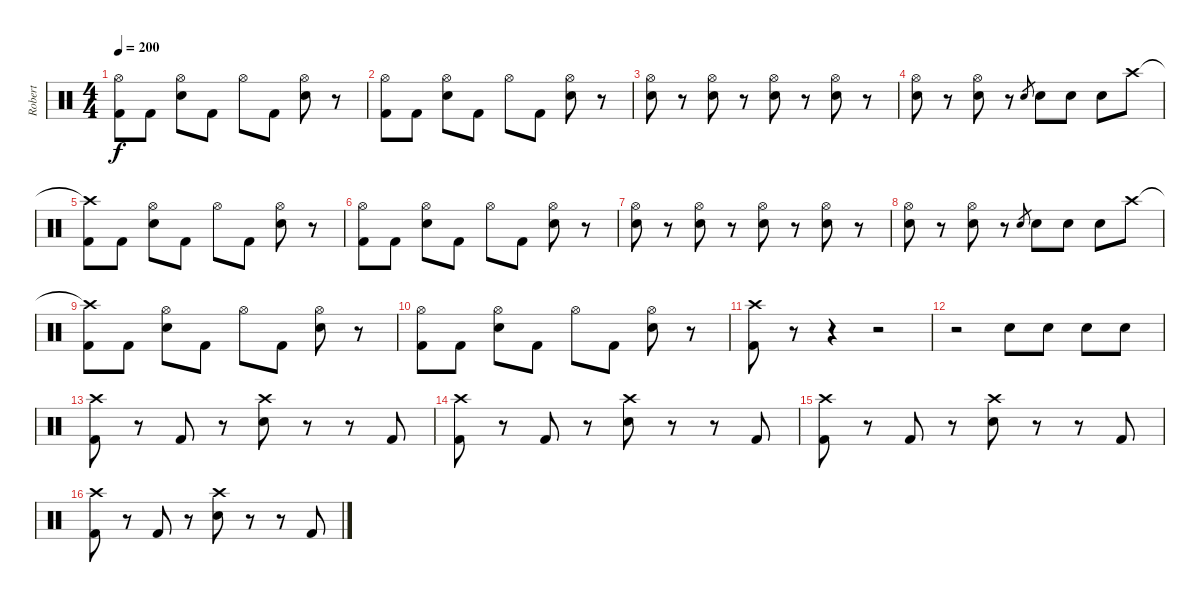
\track ("Robert" "Robert") {instrument percussion}
\staff {score}
\articulation defaults
\ts (4 4)
\tempo 200
\clef neutral
\ks c
("Hi-Hat (open)" "Kick (hit) 2").8{dy f} "Kick (hit) 2".8 ("Hi-Hat (open)" "Electric Snare (hit)").8 "Kick (hit) 2".8 "Hi-Hat (open)".8 "Kick (hit) 2".8 ("Hi-Hat (open)" "Electric Snare (hit)").8 r.8 |
("Hi-Hat (open)" "Kick (hit) 2").8 "Kick (hit) 2".8 ("Hi-Hat (open)" "Electric Snare (hit)").8 "Kick (hit) 2".8 "Hi-Hat (open)".8 "Kick (hit) 2".8 ("Hi-Hat (open)" "Electric Snare (hit)").8 r.8 |
("Hi-Hat (open)" "Electric Snare (hit)").8 r.8 ("Hi-Hat (open)" "Electric Snare (hit)").8 r.8 ("Hi-Hat (open)" "Electric Snare (hit)").8 r.8 ("Hi-Hat (open)" "Electric Snare (hit)").8 r.8 |
("Hi-Hat (open)" "Electric Snare (hit)").8 r.8 ("Hi-Hat (open)" "Electric Snare (hit)").8 r.8 "Electric Snare (hit)".8{gr} "Electric Snare (hit)".8 "Electric Snare (hit)".8 "Electric Snare (hit)".8 "Crash high (hit)".8 |
("Crash high (hit)"{t} "Kick (hit) 2").8 "Kick (hit) 2".8 ("Hi-Hat (open)" "Electric Snare (hit)").8 "Kick (hit) 2".8 "Hi-Hat (open)".8 "Kick (hit) 2".8 ("Hi-Hat (open)" "Electric Snare (hit)").8 r.8 |
("Hi-Hat (open)" "Kick (hit) 2").8 "Kick (hit) 2".8 ("Hi-Hat (open)" "Electric Snare (hit)").8 "Kick (hit) 2".8 "Hi-Hat (open)".8 "Kick (hit) 2".8 ("Hi-Hat (open)" "Electric Snare (hit)").8 r.8 |
("Hi-Hat (open)" "Electric Snare (hit)").8 r.8 ("Hi-Hat (open)" "Electric Snare (hit)").8 r.8 ("Hi-Hat (open)" "Electric Snare (hit)").8 r.8 ("Hi-Hat (open)" "Electric Snare (hit)").8 r.8 |
("Hi-Hat (open)" "Electric Snare (hit)").8 r.8 ("Hi-Hat (open)" "Electric Snare (hit)").8 r.8 "Electric Snare (hit)".8{gr} "Electric Snare (hit)".8 "Electric Snare (hit)".8 "Electric Snare (hit)".8 "Crash high (hit)".8 |
("Crash high (hit)"{t} "Kick (hit) 2").8 "Kick (hit) 2".8 ("Hi-Hat (open)" "Electric Snare (hit)").8 "Kick (hit) 2".8 "Hi-Hat (open)".8 "Kick (hit) 2".8 ("Hi-Hat (open)" "Electric Snare (hit)").8 r.8 |
("Hi-Hat (open)" "Kick (hit) 2").8 "Kick (hit) 2".8 ("Hi-Hat (open)" "Electric Snare (hit)").8 "Kick (hit) 2".8 "Hi-Hat (open)".8 "Kick (hit) 2".8 ("Hi-Hat (open)" "Electric Snare (hit)").8 r.8 |
("Crash high (hit)" "Kick (hit) 2").8 r.8 r.4 r.2 |
r.2 "Electric Snare (hit)".8 "Electric Snare (hit)".8 "Electric Snare (hit)".8 "Electric Snare (hit)".8 |
("Crash high (hit)" "Kick (hit) 2").8 r.8 "Kick (hit) 2".8 r.8 ("Crash high (hit)" "Electric Snare (hit)").8 r.8 r.8 "Kick (hit) 2".8 |
("Crash high (hit)" "Kick (hit) 2").8 r.8 "Kick (hit) 2".8 r.8 ("Crash high (hit)" "Electric Snare (hit)").8 r.8 r.8 "Kick (hit) 2".8 |
("Crash high (hit)" "Kick (hit) 2").8 r.8 "Kick (hit) 2".8 r.8 ("Crash high (hit)" "Electric Snare (hit)").8 r.8 r.8 "Kick (hit) 2".8 |
("Crash high (hit)" "Kick (hit) 2").8 r.8 "Kick (hit) 2".8 r.8 ("Crash high (hit)" "Electric Snare (hit)").8 r.8 r.8 "Kick (hit) 2".8
